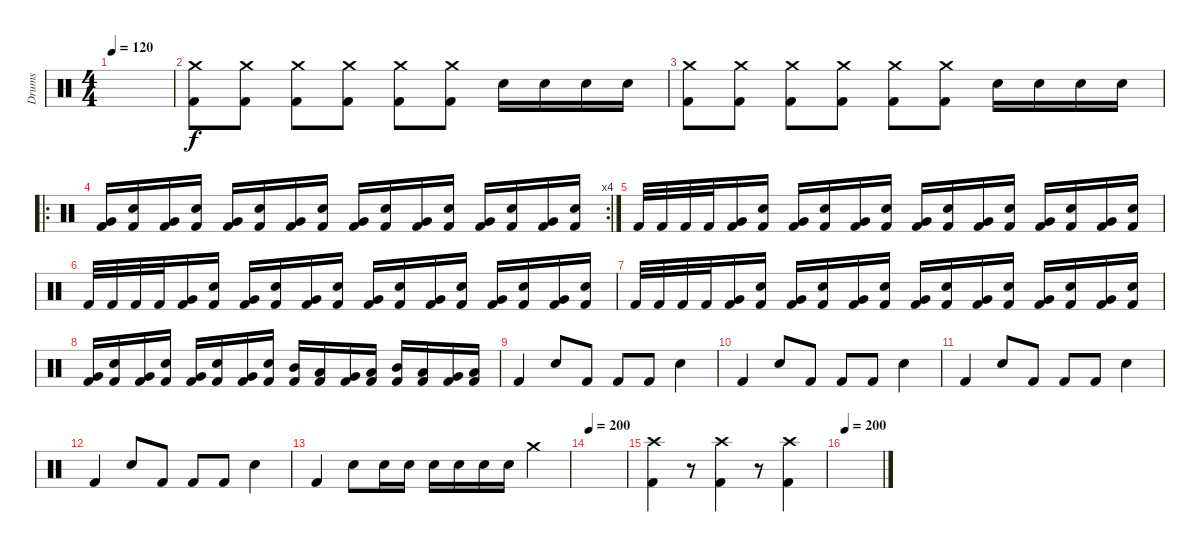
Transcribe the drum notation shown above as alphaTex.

\track ("Drums" "Drums") {instrument percussion}
\staff {score}
\articulation defaults
\ts (4 4)
\tempo 120
\clef neutral
\ks c
|
("Crash medium (hit)" "Kick (hit) 2").8 ("Crash medium (hit)" "Kick (hit) 2").8 ("Crash medium (hit)" "Kick (hit) 2").8 ("Crash medium (hit)" "Kick (hit) 2").8 ("Crash medium (hit)" "Kick (hit) 2").8 ("Crash medium (hit)" "Kick (hit) 2").8 "Snare (hit) 2".16 "Snare (hit) 2".16 "Snare (hit) 2".16 "Snare (hit) 2".16 |
("Crash medium (hit)" "Kick (hit) 2").8 ("Crash medium (hit)" "Kick (hit) 2").8 ("Crash medium (hit)" "Kick (hit) 2").8 ("Crash medium (hit)" "Kick (hit) 2").8 ("Crash medium (hit)" "Kick (hit) 2").8 ("Crash medium (hit)" "Kick (hit) 2").8 "Snare (hit) 2".16 "Snare (hit) 2".16 "Snare (hit) 2".16 "Snare (hit) 2".16 |
\ro
\rc 4
("Very Low Tom (hit)" "Kick (hit) 2").16 ("Snare (hit) 2" "Kick (hit) 2").16 ("Very Low Tom (hit)" "Kick (hit) 2").16 ("Snare (hit) 2" "Kick (hit) 2").16 ("Very Low Tom (hit)" "Kick (hit) 2").16 ("Snare (hit) 2" "Kick (hit) 2").16 ("Very Low Tom (hit)" "Kick (hit) 2").16 ("Snare (hit) 2" "Kick (hit) 2").16 ("Very Low Tom (hit)" "Kick (hit) 2").16 ("Snare (hit) 2" "Kick (hit) 2").16 ("Very Low Tom (hit)" "Kick (hit) 2").16 ("Snare (hit) 2" "Kick (hit) 2").16 ("Very Low Tom (hit)" "Kick (hit) 2").16 ("Snare (hit) 2" "Kick (hit) 2").16 ("Very Low Tom (hit)" "Kick (hit) 2").16 ("Snare (hit) 2" "Kick (hit) 2").16 |
"Kick (hit) 2".32 "Kick (hit) 2".32 "Kick (hit) 2".32 "Kick (hit) 2".32 ("Very Low Tom (hit)" "Kick (hit) 2").16 ("Snare (hit) 2" "Kick (hit) 2").16 ("Very Low Tom (hit)" "Kick (hit) 2").16 ("Snare (hit) 2" "Kick (hit) 2").16 ("Very Low Tom (hit)" "Kick (hit) 2").16 ("Snare (hit) 2" "Kick (hit) 2").16 ("Very Low Tom (hit)" "Kick (hit) 2").16 ("Snare (hit) 2" "Kick (hit) 2").16 ("Very Low Tom (hit)" "Kick (hit) 2").16 ("Snare (hit) 2" "Kick (hit) 2").16 ("Very Low Tom (hit)" "Kick (hit) 2").16 ("Snare (hit) 2" "Kick (hit) 2").16 ("Very Low Tom (hit)" "Kick (hit) 2").16 ("Snare (hit) 2" "Kick (hit) 2").16 |
"Kick (hit) 2".32 "Kick (hit) 2".32 "Kick (hit) 2".32 "Kick (hit) 2".32 ("Very Low Tom (hit)" "Kick (hit) 2").16 ("Snare (hit) 2" "Kick (hit) 2").16 ("Very Low Tom (hit)" "Kick (hit) 2").16 ("Snare (hit) 2" "Kick (hit) 2").16 ("Very Low Tom (hit)" "Kick (hit) 2").16 ("Snare (hit) 2" "Kick (hit) 2").16 ("Very Low Tom (hit)" "Kick (hit) 2").16 ("Snare (hit) 2" "Kick (hit) 2").16 ("Very Low Tom (hit)" "Kick (hit) 2").16 ("Snare (hit) 2" "Kick (hit) 2").16 ("Very Low Tom (hit)" "Kick (hit) 2").16 ("Snare (hit) 2" "Kick (hit) 2").16 ("Very Low Tom (hit)" "Kick (hit) 2").16 ("Snare (hit) 2" "Kick (hit) 2").16 |
"Kick (hit) 2".32 "Kick (hit) 2".32 "Kick (hit) 2".32 "Kick (hit) 2".32 ("Very Low Tom (hit)" "Kick (hit) 2").16 ("Snare (hit) 2" "Kick (hit) 2").16 ("Very Low Tom (hit)" "Kick (hit) 2").16 ("Snare (hit) 2" "Kick (hit) 2").16 ("Very Low Tom (hit)" "Kick (hit) 2").16 ("Snare (hit) 2" "Kick (hit) 2").16 ("Very Low Tom (hit)" "Kick (hit) 2").16 ("Snare (hit) 2" "Kick (hit) 2").16 ("Very Low Tom (hit)" "Kick (hit) 2").16 ("Snare (hit) 2" "Kick (hit) 2").16 ("Very Low Tom (hit)" "Kick (hit) 2").16 ("Snare (hit) 2" "Kick (hit) 2").16 ("Very Low Tom (hit)" "Kick (hit) 2").16 ("Snare (hit) 2" "Kick (hit) 2").16 |
("Very Low Tom (hit)" "Kick (hit) 2").16 ("Snare (hit) 2" "Kick (hit) 2").16 ("Very Low Tom (hit)" "Kick (hit) 2").16 ("Snare (hit) 2" "Kick (hit) 2").16 ("Very Low Tom (hit)" "Kick (hit) 2").16 ("Snare (hit) 2" "Kick (hit) 2").16 ("Very Low Tom (hit)" "Kick (hit) 2").16 ("Snare (hit) 2" "Kick (hit) 2").16 ("Mid Tom (hit)" "Kick (hit) 2").16 ("Low Tom (hit)" "Kick (hit) 2").16 ("Very Low Tom (hit)" "Kick (hit) 2").16 ("Low Floor Tom (hit)" "Kick (hit) 2").16 ("Mid Tom (hit)" "Kick (hit) 2").16 ("Low Tom (hit)" "Kick (hit) 2").16 ("Very Low Tom (hit)" "Kick (hit) 2").16 ("Low Floor Tom (hit)" "Kick (hit) 2").16 |
"Kick (hit) 2".4 "Snare (hit) 2".8 "Kick (hit) 2".8 "Kick (hit) 2".8 "Kick (hit) 2".8 "Snare (hit) 2".4 |
"Kick (hit) 2".4 "Snare (hit) 2".8 "Kick (hit) 2".8 "Kick (hit) 2".8 "Kick (hit) 2".8 "Snare (hit) 2".4 |
"Kick (hit) 2".4 "Snare (hit) 2".8 "Kick (hit) 2".8 "Kick (hit) 2".8 "Kick (hit) 2".8 "Snare (hit) 2".4 |
"Kick (hit) 2".4 "Snare (hit) 2".8 "Kick (hit) 2".8 "Kick (hit) 2".8 "Kick (hit) 2".8 "Snare (hit) 2".4 |
"Kick (hit) 2".4 "Snare (hit) 2".8 "Snare (hit) 2".16 "Snare (hit) 2".16 "Snare (hit) 2".16 "Snare (hit) 2".16 "Snare (hit) 2".16 "Snare (hit) 2".16 "Crash medium (hit)".4 |
\tempo 200
|
("Crash high (hit)" "Kick (hit) 2").4 r.8 ("Crash high (hit)" "Kick (hit) 2").4 r.8 ("Crash high (hit)" "Kick (hit) 2").4 |
\tempo 200
